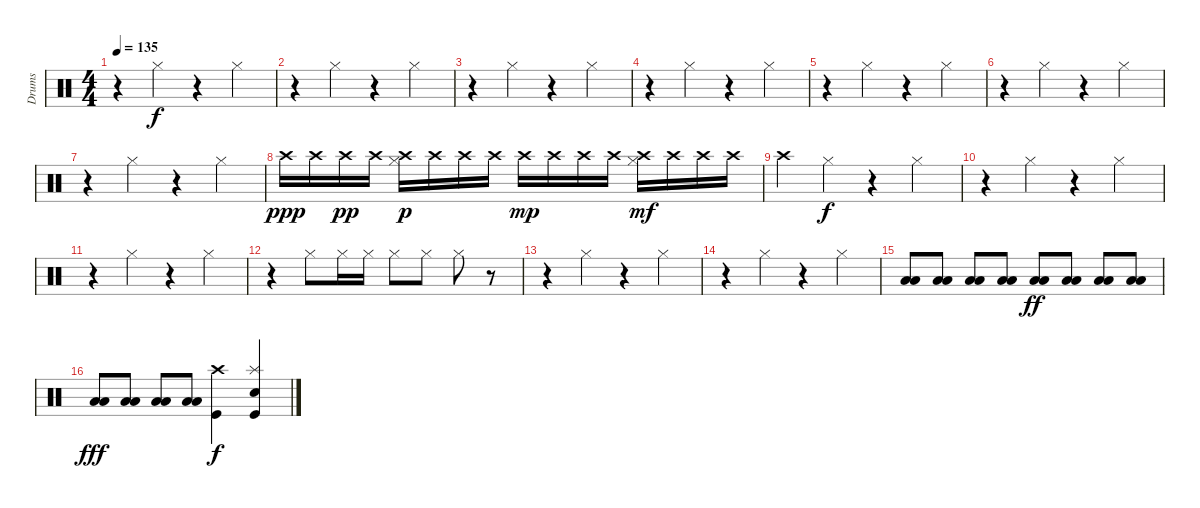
\track ("Drums" "Drums") {instrument percussion}
\staff {score}
\articulation defaults
\ts (4 4)
\tempo 135
\clef neutral
\ks c
r.4{dy f} "Hi-Hat (closed)".4 r.4 "Hi-Hat (closed)".4 |
r.4 "Hi-Hat (closed)".4 r.4 "Hi-Hat (closed)".4 |
r.4 "Hi-Hat (closed)".4 r.4 "Hi-Hat (closed)".4 |
r.4 "Hi-Hat (closed)".4 r.4 "Hi-Hat (closed)".4 |
r.4 "Hi-Hat (closed)".4 r.4 "Hi-Hat (closed)".4 |
r.4 "Hi-Hat (closed)".4 r.4 "Hi-Hat (closed)".4 |
r.4 "Hi-Hat (closed)".4 r.4 "Hi-Hat (closed)".4 |
"Crash high (hit)".16{dy ppp} "Crash high (hit)".16 "Crash high (hit)".16{dy pp} "Crash high (hit)".16 ("Crash high (hit)" "Hi-Hat (closed)").16{dy p} "Crash high (hit)".16 "Crash high (hit)".16 "Crash high (hit)".16 "Crash high (hit)".16{dy mp} "Crash high (hit)".16 "Crash high (hit)".16 "Crash high (hit)".16 ("Crash high (hit)" "Hi-Hat (closed)").16{dy mf} "Crash high (hit)".16 "Crash high (hit)".16 "Crash high (hit)".16 |
"Crash high (hit)".4 "Hi-Hat (closed)".4{dy f} r.4 "Hi-Hat (closed)".4 |
r.4 "Hi-Hat (closed)".4 r.4 "Hi-Hat (closed)".4 |
r.4 "Hi-Hat (closed)".4 r.4 "Hi-Hat (closed)".4 |
r.4 "Hi-Hat (closed)".8 "Hi-Hat (closed)".16 "Hi-Hat (closed)".16 "Hi-Hat (closed)".8 "Hi-Hat (closed)".8 "Hi-Hat (closed)".8 r.8 |
r.4 "Hi-Hat (closed)".4 r.4 "Hi-Hat (closed)".4 |
r.4 "Hi-Hat (closed)".4 r.4 "Hi-Hat (closed)".4 |
("Low Floor Tom (hit)" "Low Floor Tom (hit)").8 ("Low Floor Tom (hit)" "Low Floor Tom (hit)").8 ("Low Floor Tom (hit)" "Low Floor Tom (hit)").8 ("Low Floor Tom (hit)" "Low Floor Tom (hit)").8 ("Low Floor Tom (hit)" "Low Floor Tom (hit)").8{dy ff} ("Low Floor Tom (hit)" "Low Floor Tom (hit)").8 ("Low Floor Tom (hit)" "Low Floor Tom (hit)").8 ("Low Floor Tom (hit)" "Low Floor Tom (hit)").8 |
("Low Floor Tom (hit)" "Low Floor Tom (hit)").8{dy fff} ("Low Floor Tom (hit)" "Low Floor Tom (hit)").8 ("Low Floor Tom (hit)" "Low Floor Tom (hit)").8 ("Low Floor Tom (hit)" "Low Floor Tom (hit)").8 ("Crash high (hit)" "Kick (hit)").4{dy f} ("Splash (hit)" "Snare (hit) 2" "Kick (hit)").4
